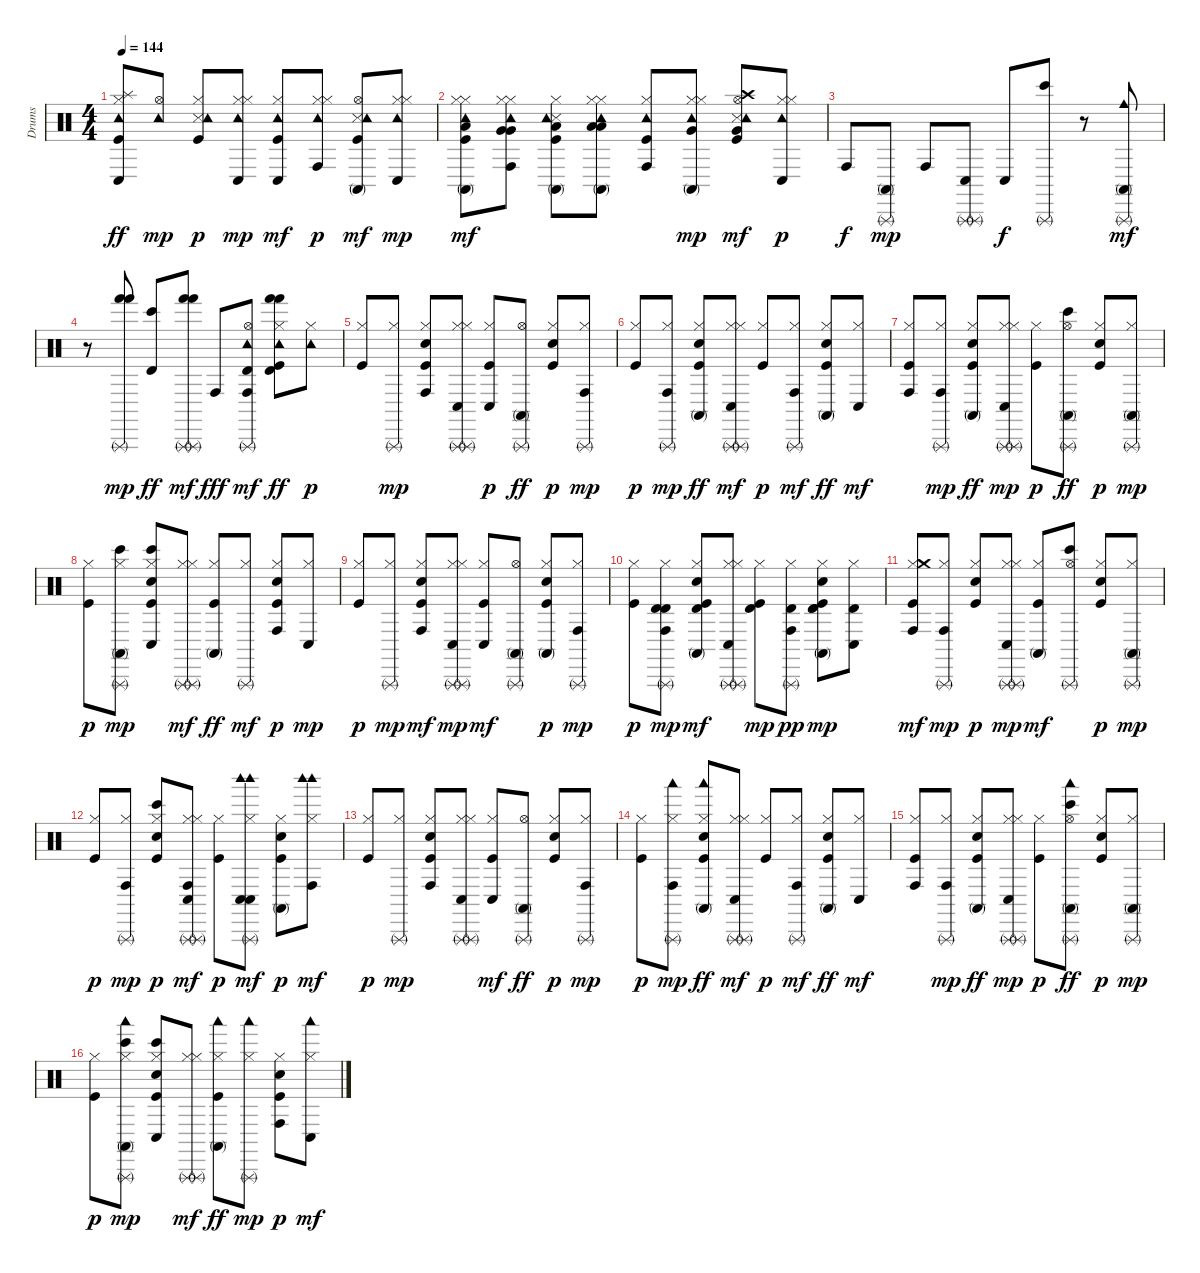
\track ("Drums" "Drums") {instrument percussion}
\staff {score}
\articulation defaults
\ts (4 4)
\tempo 144
\clef neutral
\ks c
("Kick (hit)" "Hi-Hat (closed)" "Tambourine (hit)" "Splash (hit)" "Conga low (hit)").8{dy ff} ("Hi-Hat (open)" "Tambourine (hit)").8{dy mp} ("Kick (hit)" "Snare (side stick) 3" "Hi-Hat (closed)" "Tambourine (hit)").8{dy p} ("Hi-Hat (closed)" "Tambourine (hit)" "Conga low (hit)" "Hi-Hat (closed)").8{dy mp} ("Kick (hit)" "Hi-Hat (closed)" "Tambourine (hit)" "Conga low (hit)").8{dy mf} ("Hi-Hat (closed)" "Tambourine (hit)" "Conga high (hit)" "Hi-Hat (closed)").8{dy p} ("Kick (hit)" "Snare (side stick) 3" "Hi-Hat (open)" "Tambourine (hit)" "Conga high (mute)").8{dy mf} ("Hi-Hat (closed)" "Tambourine (hit)" "Conga low (hit)" "Hi-Hat (closed)").8{dy mp} |
("Kick (hit)" "Low Floor Tom (hit)" "Hi-Hat (closed)" "Tambourine (hit)" "Hi-Hat (closed)" "Conga high (mute)").8{dy mf} ("Hi-Hat (closed)" "Very Low Tom (hit)" "Tambourine (hit)" "Conga high (hit)" "Hi-Hat (closed)" "Very Low Tom (hit)").8 ("Kick (hit)" "Snare (side stick) 3" "Hi-Hat (closed)" "Tambourine (hit)" "Conga high (mute)" "Low Floor Tom (hit)").8 ("Low Floor Tom (hit)" "Hi-Hat (closed)" "Tambourine (hit)" "Conga high (mute)" "Low Floor Tom (hit)" "Hi-Hat (closed)").8 ("Kick (hit)" "Hi-Hat (closed)" "Tambourine (hit)" "Conga high (hit)").8 ("Hi-Hat (closed)" "Very Low Tom (hit)" "Tambourine (hit)" "Conga high (mute)" "Hi-Hat (closed)").8{dy mp} ("Kick (hit)" "Snare (side stick) 3" "Very Low Tom (hit)" "Hi-Hat (open)" "Crash high (hit)" "Tambourine (hit)").8{dy mf} ("Hi-Hat (closed)" "Tambourine (hit)" "Conga low (hit)" "Hi-Hat (closed)").8{dy p} |
"Conga high (hit)".8{dy f} ("Conga high (mute)" "Triangle (rnute)").8{dy mp} "Conga high (hit)".8 ("Conga low (hit)" "Triangle (rnute)" "Triangle (rnute)").8 "Conga low (hit)".8{dy f} ("Bongo High (hit)" "Triangle (rnute)").8 r.8 ("Cowbell medium (hit)" "Conga high (mute)" "Triangle (rnute)").8{dy mf} |
r.8 ("Hand (hit)" "Hand (hit)" "Triangle (rnute)").8{dy mp} ("Bongo High (hit)" "Timbale high (hit)").8{dy ff} ("Hand (hit)" "Triangle (rnute)" "Hand (hit)" "Triangle (rnute)").8{dy mf} "Conga high (hit)".8{dy fff} ("Hi-Hat (open)" "Tambourine (hit)" "Conga high (hit)" "Timbale high (hit)" "Triangle (rnute)").8{dy mf} ("Kick (hit)" "Hi-Hat (closed)" "Tambourine (hit)" "Hand (hit)" "Timbale high (hit)" "Hand (hit)").8{dy ff} ("Hi-Hat (closed)" "Tambourine (hit)").8{dy p} |
("Kick (hit)" "Hi-Hat (closed)").8 ("Hi-Hat (closed)" "Triangle (rnute)").8{dy mp} ("Kick (hit)" "Snare (hit) 2" "Hi-Hat (closed)" "Conga high (hit)").8 ("Hi-Hat (closed)" "Conga low (hit)" "Triangle (rnute)" "Hi-Hat (closed)" "Triangle (rnute)").8 ("Kick (hit)" "Hi-Hat (closed)" "Conga low (hit)").8{dy p} ("Hi-Hat (open)" "Conga high (mute)" "Triangle (rnute)").8{dy ff} ("Kick (hit)" "Snare (hit) 2" "Hi-Hat (closed)").8{dy p} ("Hi-Hat (closed)" "Conga high (hit)" "Triangle (rnute)").8{dy mp} |
("Kick (hit)" "Hi-Hat (closed)").8{dy p} ("Hi-Hat (closed)" "Conga high (hit)" "Triangle (rnute)").8{dy mp} ("Kick (hit)" "Snare (hit) 2" "Hi-Hat (closed)" "Conga high (mute)").8{dy ff} ("Hi-Hat (closed)" "Conga low (hit)" "Triangle (rnute)" "Hi-Hat (closed)" "Triangle (rnute)").8{dy mf} ("Kick (hit)" "Hi-Hat (closed)").8{dy p} ("Hi-Hat (closed)" "Conga high (hit)" "Triangle (rnute)").8{dy mf} ("Kick (hit)" "Snare (hit) 2" "Hi-Hat (closed)" "Conga high (mute)").8{dy ff} ("Hi-Hat (closed)" "Conga low (hit)").8{dy mf} |
("Kick (hit)" "Hi-Hat (closed)" "Conga high (hit)").8 ("Hi-Hat (closed)" "Conga high (hit)" "Triangle (rnute)").8{dy mp} ("Kick (hit)" "Snare (hit) 2" "Hi-Hat (closed)" "Conga high (mute)").8{dy ff} ("Hi-Hat (closed)" "Conga low (hit)" "Triangle (rnute)" "Hi-Hat (closed)" "Triangle (rnute)").8{dy mp} ("Kick (hit)" "Hi-Hat (closed)").8{dy p} ("Hi-Hat (open)" "Bongo High (hit)" "Conga high (mute)" "Triangle (rnute)").8{dy ff} ("Kick (hit)" "Snare (hit) 2" "Hi-Hat (closed)").8{dy p} ("Hi-Hat (closed)" "Conga high (mute)" "Triangle (rnute)").8{dy mp} |
("Kick (hit)" "Hi-Hat (closed)").8{dy p} ("Hi-Hat (closed)" "Bongo High (hit)" "Conga high (mute)" "Triangle (rnute)").8{dy mp} ("Kick (hit)" "Snare (hit) 2" "Hi-Hat (closed)" "Bongo High (hit)" "Conga low (hit)").8 ("Hi-Hat (closed)" "Triangle (rnute)" "Hi-Hat (closed)" "Triangle (rnute)").8{dy mf} ("Kick (hit)" "Hi-Hat (closed)" "Conga high (mute)").8{dy ff} ("Hi-Hat (closed)" "Triangle (rnute)").8{dy mf} ("Kick (hit)" "Snare (hit) 2" "Hi-Hat (closed)" "Conga high (hit)").8{dy p} ("Hi-Hat (closed)" "Conga low (hit)").8{dy mp} |
("Kick (hit)" "Hi-Hat (closed)").8{dy p} ("Hi-Hat (closed)" "Triangle (rnute)").8{dy mp} ("Kick (hit)" "Snare (hit) 2" "Hi-Hat (closed)" "Conga high (hit)").8{dy mf} ("Hi-Hat (closed)" "Conga low (hit)" "Triangle (rnute)" "Hi-Hat (closed)" "Triangle (rnute)").8{dy mp} ("Kick (hit)" "Hi-Hat (closed)" "Conga low (hit)").8{dy mf} ("Hi-Hat (open)" "Conga high (mute)" "Triangle (rnute)").8 ("Kick (hit)" "Snare (hit) 2" "Hi-Hat (closed)" "Conga high (mute)").8{dy p} ("Hi-Hat (closed)" "Conga high (hit)" "Triangle (rnute)").8{dy mp} |
("Kick (hit)" "Hi-Hat (closed)").8{dy p} ("Timbale high (hit)" "Hi-Hat (closed)" "Conga high (hit)" "Timbale high (hit)" "Triangle (rnute)").8{dy mp} ("Kick (hit)" "Snare (hit) 2" "Hi-Hat (closed)" "Conga high (mute)" "Timbale high (hit)").8{dy mf} ("Hi-Hat (closed)" "Conga low (hit)" "Triangle (rnute)" "Hi-Hat (closed)" "Triangle (rnute)").8 ("Kick (hit)" "Hi-Hat (closed)" "Timbale high (hit)").8{dy mp} ("Hi-Hat (closed)" "Conga high (hit)" "Timbale high (hit)" "Triangle (rnute)").8{dy pp} ("Kick (hit)" "Snare (hit) 2" "Hi-Hat (closed)" "Conga high (mute)" "Timbale high (hit)" "Timbale high (hit)").8{dy mp} ("Hi-Hat (closed)" "Conga low (hit)" "Timbale high (hit)").8 |
("Kick (hit)" "Hi-Hat (closed)" "Crash medium (hit)" "Conga high (hit)").8{dy mf} ("Hi-Hat (closed)" "Conga high (hit)" "Triangle (rnute)").8{dy mp} ("Kick (hit)" "Snare (hit) 2" "Hi-Hat (closed)").8{dy p} ("Hi-Hat (closed)" "Conga low (hit)" "Triangle (rnute)" "Hi-Hat (closed)" "Triangle (rnute)").8{dy mp} ("Kick (hit)" "Hi-Hat (closed)" "Conga high (mute)").8{dy mf} ("Hi-Hat (open)" "Bongo High (hit)" "Triangle (rnute)").8 ("Kick (hit)" "Snare (hit) 2" "Hi-Hat (closed)").8{dy p} ("Hi-Hat (closed)" "Conga high (mute)" "Triangle (rnute)").8{dy mp} |
("Kick (hit)" "Hi-Hat (closed)").8{dy p} ("Hi-Hat (closed)" "Conga high (hit)" "Triangle (rnute)").8{dy mp} ("Kick (hit)" "Snare (hit) 2" "Hi-Hat (closed)" "Bongo High (hit)").8{dy p} ("Hi-Hat (closed)" "Conga high (hit)" "Triangle (rnute)" "Hi-Hat (closed)" "Conga low (hit)" "Triangle (rnute)").8{dy mf} ("Kick (hit)" "Hi-Hat (closed)").8{dy p} ("Hi-Hat (closed)" "Conga low (hit)" "Woodblock high (hit)" "Triangle (rnute)" "Conga low (hit)" "Woodblock high (hit)").8{dy mf} ("Kick (hit)" "Snare (hit) 2" "Hi-Hat (closed)" "Conga high (mute)").8{dy p} ("Hi-Hat (closed)" "Conga high (hit)" "Woodblock high (hit)" "Woodblock high (hit)").8{dy mf} |
("Kick (hit)" "Hi-Hat (closed)").8{dy p} ("Hi-Hat (closed)" "Triangle (rnute)").8{dy mp} ("Kick (hit)" "Snare (hit) 2" "Hi-Hat (closed)" "Conga high (hit)").8 ("Hi-Hat (closed)" "Conga low (hit)" "Triangle (rnute)" "Hi-Hat (closed)" "Triangle (rnute)").8 ("Kick (hit)" "Hi-Hat (closed)" "Conga low (hit)").8{dy mf} ("Hi-Hat (open)" "Conga high (mute)" "Triangle (rnute)").8{dy ff} ("Kick (hit)" "Snare (hit) 2" "Hi-Hat (closed)").8{dy p} ("Hi-Hat (closed)" "Conga high (hit)" "Triangle (rnute)").8{dy mp} |
("Kick (hit)" "Hi-Hat (closed)").8{dy p} ("Hi-Hat (closed)" "Conga high (hit)" "Woodblock low (hit)" "Triangle (rnute)").8{dy mp} ("Kick (hit)" "Snare (hit) 2" "Hi-Hat (closed)" "Conga high (mute)" "Woodblock low (hit)").8{dy ff} ("Hi-Hat (closed)" "Conga low (hit)" "Triangle (rnute)" "Hi-Hat (closed)" "Triangle (rnute)").8{dy mf} ("Kick (hit)" "Hi-Hat (closed)").8{dy p} ("Hi-Hat (closed)" "Conga high (hit)" "Triangle (rnute)").8{dy mf} ("Kick (hit)" "Snare (hit) 2" "Hi-Hat (closed)" "Conga high (mute)").8{dy ff} ("Hi-Hat (closed)" "Conga low (hit)").8{dy mf} |
("Kick (hit)" "Hi-Hat (closed)" "Conga high (hit)").8 ("Hi-Hat (closed)" "Conga high (hit)" "Triangle (rnute)").8{dy mp} ("Kick (hit)" "Snare (hit) 2" "Hi-Hat (closed)" "Conga high (mute)").8{dy ff} ("Hi-Hat (closed)" "Conga low (hit)" "Triangle (rnute)" "Hi-Hat (closed)" "Triangle (rnute)").8{dy mp} ("Kick (hit)" "Hi-Hat (closed)").8{dy p} ("Hi-Hat (open)" "Bongo High (hit)" "Conga high (mute)" "Woodblock low (hit)" "Triangle (rnute)").8{dy ff} ("Kick (hit)" "Snare (hit) 2" "Hi-Hat (closed)").8{dy p} ("Hi-Hat (closed)" "Conga high (mute)" "Triangle (rnute)").8{dy mp} |
("Kick (hit)" "Hi-Hat (closed)").8{dy p} ("Hi-Hat (closed)" "Bongo High (hit)" "Conga high (mute)" "Woodblock low (hit)" "Triangle (rnute)").8{dy mp} ("Kick (hit)" "Snare (hit) 2" "Hi-Hat (closed)" "Bongo High (hit)" "Conga low (hit)").8 ("Hi-Hat (closed)" "Triangle (rnute)" "Hi-Hat (closed)" "Triangle (rnute)").8{dy mf} ("Kick (hit)" "Hi-Hat (closed)" "Conga high (mute)" "Woodblock low (hit)").8{dy ff} ("Hi-Hat (closed)" "Woodblock low (hit)" "Triangle (rnute)").8{dy mp} ("Kick (hit)" "Snare (hit) 2" "Hi-Hat (closed)" "Conga high (hit)").8{dy p} ("Hi-Hat (closed)" "Conga low (hit)" "Woodblock low (hit)").8{dy mf}
